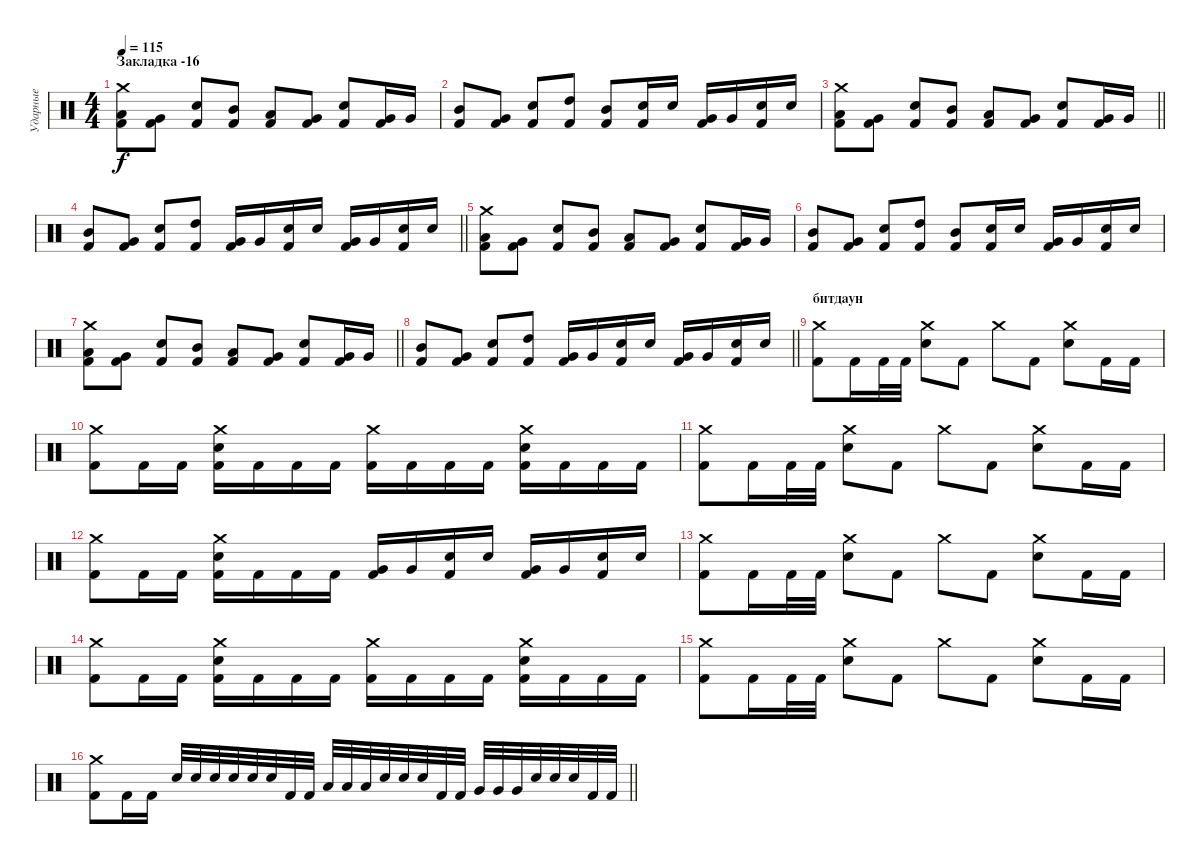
\track ("Ударные" "Ударные") {instrument percussion}
\staff {score}
\articulation defaults
\ts (4 4)
\section ("" "Закладка -16")
\tempo 115
\clef neutral
\ks c
("Crash medium (hit)" "Low Tom (hit)" "Kick (hit) 2").8{dy f} ("Very Low Tom (hit)" "Kick (hit) 2").8 ("Electric Snare (hit)" "Kick (hit) 2").8 ("Mid Tom (hit)" "Kick (hit) 2").8 ("Low Tom (hit)" "Kick (hit) 2").8 ("Very Low Tom (hit)" "Kick (hit) 2").8 ("Electric Snare (hit)" "Kick (hit) 2").8 ("Very Low Tom (hit)" "Kick (hit) 2").16 "Very Low Tom (hit)".16 |
("Mid Tom (hit)" "Kick (hit) 2").8 ("Very Low Tom (hit)" "Kick (hit) 2").8 ("Electric Snare (hit)" "Kick (hit) 2").8 ("High Tom (hit)" "Kick (hit) 2").8 ("Mid Tom (hit)" "Kick (hit) 2").8 ("Electric Snare (hit)" "Kick (hit) 2").16 "Electric Snare (hit)".16 ("Very Low Tom (hit)" "Kick (hit) 2").16 "Very Low Tom (hit)".16 ("Electric Snare (hit)" "Kick (hit) 2").16 "Electric Snare (hit)".16 |
\barLineRight lightlight
("Crash medium (hit)" "Low Tom (hit)" "Kick (hit) 2").8 ("Very Low Tom (hit)" "Kick (hit) 2").8 ("Electric Snare (hit)" "Kick (hit) 2").8 ("Mid Tom (hit)" "Kick (hit) 2").8 ("Low Tom (hit)" "Kick (hit) 2").8 ("Very Low Tom (hit)" "Kick (hit) 2").8 ("Electric Snare (hit)" "Kick (hit) 2").8 ("Very Low Tom (hit)" "Kick (hit) 2").16 "Very Low Tom (hit)".16 |
\barLineRight lightlight
("Mid Tom (hit)" "Kick (hit) 2").8 ("Very Low Tom (hit)" "Kick (hit) 2").8 ("Electric Snare (hit)" "Kick (hit) 2").8 ("High Tom (hit)" "Kick (hit) 2").8 ("Very Low Tom (hit)" "Kick (hit) 2").16 "Very Low Tom (hit)".16 ("Electric Snare (hit)" "Kick (hit) 2").16 "Electric Snare (hit)".16 ("Very Low Tom (hit)" "Kick (hit) 2").16 "Very Low Tom (hit)".16 ("Electric Snare (hit)" "Kick (hit) 2").16 "Electric Snare (hit)".16 |
("Crash medium (hit)" "Low Tom (hit)" "Kick (hit) 2").8 ("Very Low Tom (hit)" "Kick (hit) 2").8 ("Electric Snare (hit)" "Kick (hit) 2").8 ("Mid Tom (hit)" "Kick (hit) 2").8 ("Low Tom (hit)" "Kick (hit) 2").8 ("Very Low Tom (hit)" "Kick (hit) 2").8 ("Electric Snare (hit)" "Kick (hit) 2").8 ("Very Low Tom (hit)" "Kick (hit) 2").16 "Very Low Tom (hit)".16 |
("Mid Tom (hit)" "Kick (hit) 2").8 ("Very Low Tom (hit)" "Kick (hit) 2").8 ("Electric Snare (hit)" "Kick (hit) 2").8 ("High Tom (hit)" "Kick (hit) 2").8 ("Mid Tom (hit)" "Kick (hit) 2").8 ("Electric Snare (hit)" "Kick (hit) 2").16 "Electric Snare (hit)".16 ("Very Low Tom (hit)" "Kick (hit) 2").16 "Very Low Tom (hit)".16 ("Electric Snare (hit)" "Kick (hit) 2").16 "Electric Snare (hit)".16 |
\barLineRight lightlight
("Crash medium (hit)" "Low Tom (hit)" "Kick (hit) 2").8 ("Very Low Tom (hit)" "Kick (hit) 2").8 ("Electric Snare (hit)" "Kick (hit) 2").8 ("Mid Tom (hit)" "Kick (hit) 2").8 ("Low Tom (hit)" "Kick (hit) 2").8 ("Very Low Tom (hit)" "Kick (hit) 2").8 ("Electric Snare (hit)" "Kick (hit) 2").8 ("Very Low Tom (hit)" "Kick (hit) 2").16 "Very Low Tom (hit)".16 |
\barLineRight lightlight
("Mid Tom (hit)" "Kick (hit) 2").8 ("Very Low Tom (hit)" "Kick (hit) 2").8 ("Electric Snare (hit)" "Kick (hit) 2").8 ("High Tom (hit)" "Kick (hit) 2").8 ("Very Low Tom (hit)" "Kick (hit) 2").16 "Very Low Tom (hit)".16 ("Electric Snare (hit)" "Kick (hit) 2").16 "Electric Snare (hit)".16 ("Very Low Tom (hit)" "Kick (hit) 2").16 "Very Low Tom (hit)".16 ("Electric Snare (hit)" "Kick (hit) 2").16 "Electric Snare (hit)".16 |
\section ("" "битдаун")
("Crash medium (hit)" "Kick (hit) 2").8 "Kick (hit) 2".16 "Kick (hit) 2".32 "Kick (hit) 2".32 ("Crash medium (hit)" "Electric Snare (hit)").8 "Kick (hit) 2".8 "Crash medium (hit)".8 "Kick (hit) 2".8 ("Crash medium (hit)" "Electric Snare (hit)").8 "Kick (hit) 2".16 "Kick (hit) 2".16 |
("Crash medium (hit)" "Kick (hit) 2").8 "Kick (hit) 2".16 "Kick (hit) 2".16 ("Crash medium (hit)" "Electric Snare (hit)" "Kick (hit) 2").16 "Kick (hit) 2".16 "Kick (hit) 2".16 "Kick (hit) 2".16 ("Crash medium (hit)" "Kick (hit) 2").16 "Kick (hit) 2".16 "Kick (hit) 2".16 "Kick (hit) 2".16 ("Crash medium (hit)" "Electric Snare (hit)" "Kick (hit) 2").16 "Kick (hit) 2".16 "Kick (hit) 2".16 "Kick (hit) 2".16 |
("Crash medium (hit)" "Kick (hit) 2").8 "Kick (hit) 2".16 "Kick (hit) 2".32 "Kick (hit) 2".32 ("Crash medium (hit)" "Electric Snare (hit)").8 "Kick (hit) 2".8 "Crash medium (hit)".8 "Kick (hit) 2".8 ("Crash medium (hit)" "Electric Snare (hit)").8 "Kick (hit) 2".16 "Kick (hit) 2".16 |
("Crash medium (hit)" "Kick (hit) 2").8 "Kick (hit) 2".16 "Kick (hit) 2".16 ("Crash medium (hit)" "Electric Snare (hit)" "Kick (hit) 2").16 "Kick (hit) 2".16 "Kick (hit) 2".16 "Kick (hit) 2".16 ("Very Low Tom (hit)" "Kick (hit) 2").16 "Very Low Tom (hit)".16 ("Electric Snare (hit)" "Kick (hit) 2").16 "Electric Snare (hit)".16 ("Very Low Tom (hit)" "Kick (hit) 2").16 "Very Low Tom (hit)".16 ("Electric Snare (hit)" "Kick (hit) 2").16 "Electric Snare (hit)".16 |
("Crash medium (hit)" "Kick (hit) 2").8 "Kick (hit) 2".16 "Kick (hit) 2".32 "Kick (hit) 2".32 ("Crash medium (hit)" "Electric Snare (hit)").8 "Kick (hit) 2".8 "Crash medium (hit)".8 "Kick (hit) 2".8 ("Crash medium (hit)" "Electric Snare (hit)").8 "Kick (hit) 2".16 "Kick (hit) 2".16 |
("Crash medium (hit)" "Kick (hit) 2").8 "Kick (hit) 2".16 "Kick (hit) 2".16 ("Crash medium (hit)" "Electric Snare (hit)" "Kick (hit) 2").16 "Kick (hit) 2".16 "Kick (hit) 2".16 "Kick (hit) 2".16 ("Crash medium (hit)" "Kick (hit) 2").16 "Kick (hit) 2".16 "Kick (hit) 2".16 "Kick (hit) 2".16 ("Crash medium (hit)" "Electric Snare (hit)" "Kick (hit) 2").16 "Kick (hit) 2".16 "Kick (hit) 2".16 "Kick (hit) 2".16 |
("Crash medium (hit)" "Kick (hit) 2").8 "Kick (hit) 2".16 "Kick (hit) 2".32 "Kick (hit) 2".32 ("Crash medium (hit)" "Electric Snare (hit)").8 "Kick (hit) 2".8 "Crash medium (hit)".8 "Kick (hit) 2".8 ("Crash medium (hit)" "Electric Snare (hit)").8 "Kick (hit) 2".16 "Kick (hit) 2".16 |
\barLineRight lightlight
("Crash medium (hit)" "Kick (hit) 2").8 "Kick (hit) 2".16 "Kick (hit) 2".16 "Electric Snare (hit)".32 "Electric Snare (hit)".32 "Electric Snare (hit)".32 "Electric Snare (hit)".32 "Electric Snare (hit)".32 "Electric Snare (hit)".32 "Kick (hit) 2".32 "Kick (hit) 2".32 "Low Tom (hit)".32 "Low Tom (hit)".32 "Low Tom (hit)".32 "Electric Snare (hit)".32 "Electric Snare (hit)".32 "Electric Snare (hit)".32 "Kick (hit) 2".32 "Kick (hit) 2".32 "Very Low Tom (hit)".32 "Very Low Tom (hit)".32 "Very Low Tom (hit)".32 "Electric Snare (hit)".32 "Electric Snare (hit)".32 "Electric Snare (hit)".32 "Kick (hit) 2".32 "Kick (hit) 2".32
